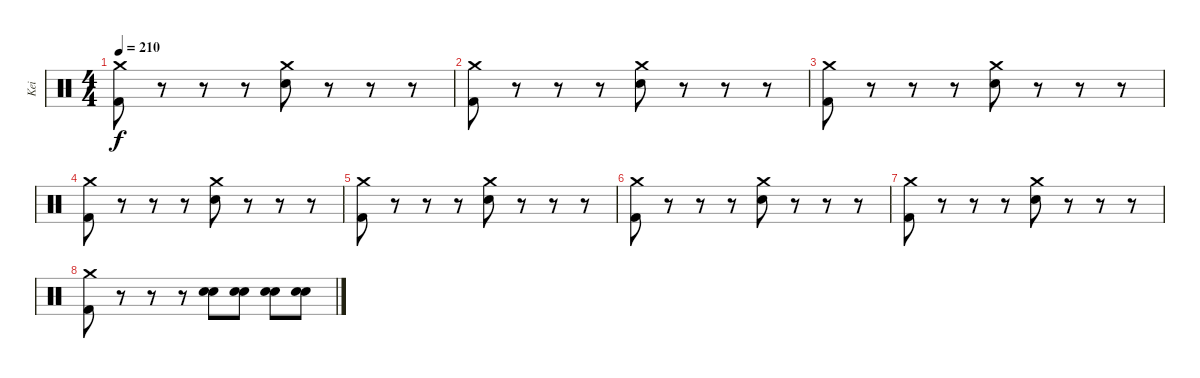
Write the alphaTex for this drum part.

\track ("Kei" "Kei") {instrument percussion}
\staff {score}
\articulation defaults
\ts (4 4)
\tempo 210
\clef neutral
\ks c
("Crash medium (hit)" "Kick (hit) 2").8{dy f} r.8 r.8 r.8 ("Crash medium (hit)" "Electric Snare (hit)").8 r.8 r.8 r.8 |
("Crash medium (hit)" "Kick (hit) 2").8 r.8 r.8 r.8 ("Crash medium (hit)" "Electric Snare (hit)").8 r.8 r.8 r.8 |
("Crash medium (hit)" "Kick (hit) 2").8 r.8 r.8 r.8 ("Crash medium (hit)" "Electric Snare (hit)").8 r.8 r.8 r.8 |
("Crash medium (hit)" "Kick (hit) 2").8 r.8 r.8 r.8 ("Crash medium (hit)" "Electric Snare (hit)").8 r.8 r.8 r.8 |
("Crash medium (hit)" "Kick (hit) 2").8 r.8 r.8 r.8 ("Crash medium (hit)" "Electric Snare (hit)").8 r.8 r.8 r.8 |
("Crash medium (hit)" "Kick (hit) 2").8 r.8 r.8 r.8 ("Crash medium (hit)" "Electric Snare (hit)").8 r.8 r.8 r.8 |
("Crash medium (hit)" "Kick (hit) 2").8 r.8 r.8 r.8 ("Crash medium (hit)" "Electric Snare (hit)").8 r.8 r.8 r.8 |
("Crash medium (hit)" "Kick (hit) 2").8 r.8 r.8 r.8 ("Electric Snare (hit)" "Electric Snare (hit)").8 ("Electric Snare (hit)" "Electric Snare (hit)").8 ("Electric Snare (hit)" "Electric Snare (hit)").8 ("Electric Snare (hit)" "Electric Snare (hit)").8
